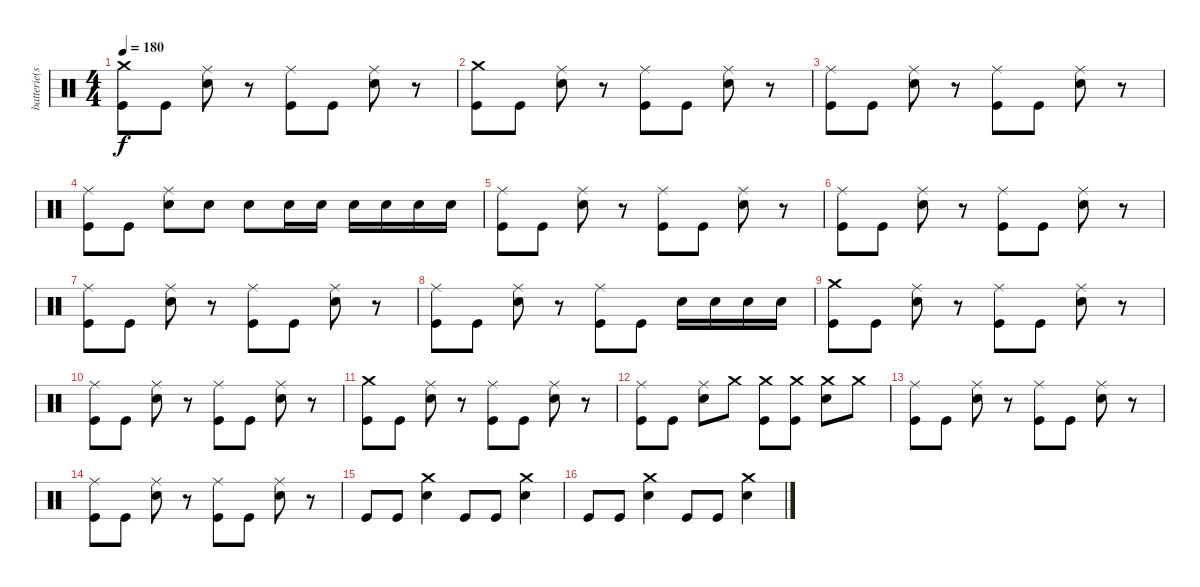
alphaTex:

\track ("batterie(scott)" "batterie(s") {instrument percussion}
\staff {score}
\articulation defaults
\ts (4 4)
\tempo 180
\clef neutral
\ks c
("Crash medium (hit)" "Kick (hit)").8{dy f} "Kick (hit)".8 ("Ride (middle)" "Snare (hit) 2").8 r.8 ("Ride (middle)" "Kick (hit)").8 "Kick (hit)".8 ("Ride (middle)" "Snare (hit) 2").8 r.8 |
("Crash medium (hit)" "Kick (hit)").8 "Kick (hit)".8 ("Ride (middle)" "Snare (hit) 2").8 r.8 ("Ride (middle)" "Kick (hit)").8 "Kick (hit)".8 ("Ride (middle)" "Snare (hit) 2").8 r.8 |
("Ride (middle)" "Kick (hit)").8 "Kick (hit)".8 ("Ride (middle)" "Snare (hit) 2").8 r.8 ("Ride (middle)" "Kick (hit)").8 "Kick (hit)".8 ("Ride (middle)" "Snare (hit) 2").8 r.8 |
("Ride (middle)" "Kick (hit)").8 "Kick (hit)".8 ("Ride (middle)" "Snare (hit) 2").8 "Snare (hit) 2".8 "Snare (hit) 2".8 "Snare (hit) 2".16 "Snare (hit) 2".16 "Snare (hit) 2".16 "Snare (hit) 2".16 "Snare (hit) 2".16 "Snare (hit) 2".16 |
("Ride (middle)" "Kick (hit)").8 "Kick (hit)".8 ("Ride (middle)" "Snare (hit) 2").8 r.8 ("Ride (middle)" "Kick (hit)").8 "Kick (hit)".8 ("Ride (middle)" "Snare (hit) 2").8 r.8 |
("Ride (middle)" "Kick (hit)").8 "Kick (hit)".8 ("Ride (middle)" "Snare (hit) 2").8 r.8 ("Ride (middle)" "Kick (hit)").8 "Kick (hit)".8 ("Ride (middle)" "Snare (hit) 2").8 r.8 |
("Ride (middle)" "Kick (hit)").8 "Kick (hit)".8 ("Ride (middle)" "Snare (hit) 2").8 r.8 ("Ride (middle)" "Kick (hit)").8 "Kick (hit)".8 ("Ride (middle)" "Snare (hit) 2").8 r.8 |
("Ride (middle)" "Kick (hit)").8 "Kick (hit)".8 ("Ride (middle)" "Snare (hit) 2").8 r.8 ("Ride (middle)" "Kick (hit)").8 "Kick (hit)".8 "Snare (hit) 2".16 "Snare (hit) 2".16 "Snare (hit) 2".16 "Snare (hit) 2".16 |
("Crash medium (hit)" "Kick (hit)").8 "Kick (hit)".8 ("Ride (middle)" "Snare (hit) 2").8 r.8 ("Ride (middle)" "Kick (hit)").8 "Kick (hit)".8 ("Ride (middle)" "Snare (hit) 2").8 r.8 |
("Ride (middle)" "Kick (hit)").8 "Kick (hit)".8 ("Ride (middle)" "Snare (hit) 2").8 r.8 ("Ride (middle)" "Kick (hit)").8 "Kick (hit)".8 ("Ride (middle)" "Snare (hit) 2").8 r.8 |
("Crash medium (hit)" "Kick (hit)").8 "Kick (hit)".8 ("Ride (middle)" "Snare (hit) 2").8 r.8 ("Ride (middle)" "Kick (hit)").8 "Kick (hit)".8 ("Ride (middle)" "Snare (hit) 2").8 r.8 |
("Ride (middle)" "Kick (hit)").8 "Kick (hit)".8 ("Ride (middle)" "Snare (hit) 2").8 "Crash medium (hit)".8 ("Crash medium (hit)" "Kick (hit)").8 ("Crash medium (hit)" "Kick (hit)").8 ("Crash medium (hit)" "Snare (hit) 2").8 "Crash medium (hit)".8 |
("Ride (middle)" "Kick (hit)").8 "Kick (hit)".8 ("Ride (middle)" "Snare (hit) 2").8 r.8 ("Ride (middle)" "Kick (hit)").8 "Kick (hit)".8 ("Ride (middle)" "Snare (hit) 2").8 r.8 |
("Ride (middle)" "Kick (hit)").8 "Kick (hit)".8 ("Ride (middle)" "Snare (hit) 2").8 r.8 ("Ride (middle)" "Kick (hit)").8 "Kick (hit)".8 ("Ride (middle)" "Snare (hit) 2").8 r.8 |
"Kick (hit)".8 "Kick (hit)".8 ("Crash medium (hit)" "Snare (hit) 2").4 "Kick (hit)".8 "Kick (hit)".8 ("Crash medium (hit)" "Snare (hit) 2").4 |
"Kick (hit)".8 "Kick (hit)".8 ("Crash medium (hit)" "Snare (hit) 2").4 "Kick (hit)".8 "Kick (hit)".8 ("Crash medium (hit)" "Snare (hit) 2").4
